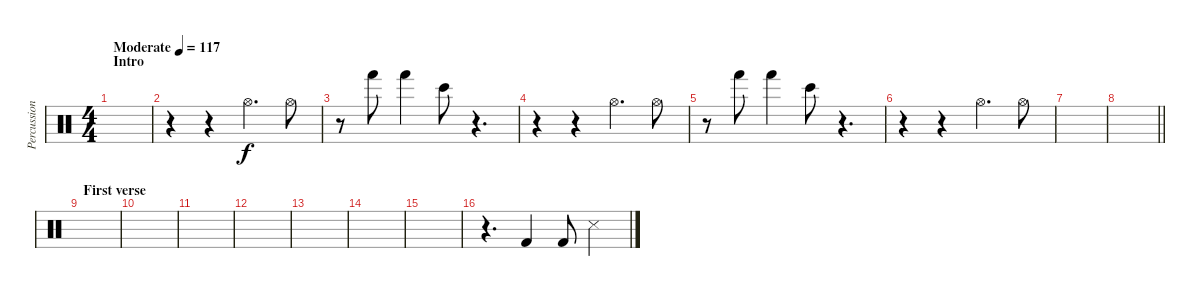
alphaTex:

\track ("Percussion" "Percussion") {instrument percussion}
\staff {score}
\articulation defaults
\ts (4 4)
\section ("" "Intro")
\tempo (117 "Moderate")
\clef neutral
\ks c
|
r.4 r.4 "Hi-Hat (open)".4{d} "Hi-Hat (open)".8 |
r.8 "Hand (hit)".8 "Hand (hit)".4 "Bongo High (hit)".8 r.4{d} |
r.4 r.4 "Hi-Hat (open)".4{d} "Hi-Hat (open)".8 |
r.8 "Hand (hit)".8 "Hand (hit)".4 "Bongo High (hit)".8 r.4{d} |
r.4 r.4 "Hi-Hat (open)".4{d} "Hi-Hat (open)".8 |
|
\barLineRight lightlight
|
\section ("" "First verse")
|
|
|
|
|
|
|
r.4{d} "Kick (hit) 2".4 "Kick (hit) 2".8 "Snare (side stick) 3".4
